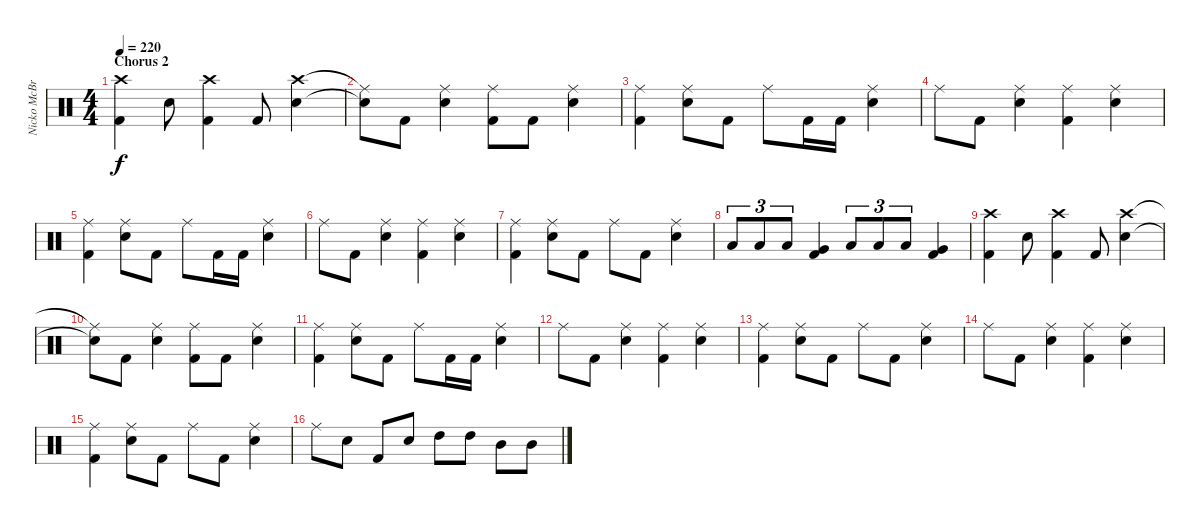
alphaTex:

\track ("Nicko McBrain" "Nicko McBr") {instrument percussion}
\staff {score}
\articulation defaults
\ts (4 4)
\section ("" "Chorus 2")
\tempo 220
\clef neutral
\ks c
("Crash high (hit)" "Kick (hit) 2").4{dy f} "Electric Snare (hit)".8 ("Crash high (hit)" "Kick (hit) 2").4 "Kick (hit) 2".8 ("Crash high (hit)" "Electric Snare (hit)").4 |
("Ride (middle)"{t} "Snare (hit)"{t}).8 "Kick (hit) 2".8 ("Ride (middle)" "Electric Snare (hit)").4 ("Ride (middle)" "Kick (hit) 2").8 "Kick (hit) 2".8 ("Ride (middle)" "Electric Snare (hit)").4 |
("Ride (middle)" "Kick (hit) 2").4 ("Ride (middle)" "Electric Snare (hit)").8 "Kick (hit) 2".8 "Ride (middle)".8 "Kick (hit) 2".16 "Kick (hit) 2".16 ("Ride (middle)" "Electric Snare (hit)").4 |
"Ride (middle)".8 "Kick (hit) 2".8 ("Ride (middle)" "Electric Snare (hit)").4 ("Ride (middle)" "Kick (hit) 2").4 ("Ride (middle)" "Electric Snare (hit)").4 |
("Ride (middle)" "Kick (hit) 2").4 ("Ride (middle)" "Electric Snare (hit)").8 "Kick (hit) 2".8 "Ride (middle)".8 "Kick (hit) 2".16 "Kick (hit) 2".16 ("Ride (middle)" "Electric Snare (hit)").4 |
"Ride (middle)".8 "Kick (hit) 2".8 ("Ride (middle)" "Electric Snare (hit)").4 ("Ride (middle)" "Kick (hit) 2").4 ("Ride (middle)" "Electric Snare (hit)").4 |
("Ride (middle)" "Kick (hit) 2").4 ("Ride (middle)" "Electric Snare (hit)").8 "Kick (hit) 2".8 "Ride (middle)".8 "Kick (hit) 2".8 ("Ride (middle)" "Electric Snare (hit)").4 |
"Low Tom (hit)".8{tu (3 2)} "Low Tom (hit)".8{tu (3 2)} "Low Tom (hit)".8{tu (3 2)} ("Very Low Tom (hit)" "Kick (hit) 2").4 "Low Tom (hit)".8{tu (3 2)} "Low Tom (hit)".8{tu (3 2)} "Low Tom (hit)".8{tu (3 2)} ("Very Low Tom (hit)" "Kick (hit) 2").4 |
("Crash high (hit)" "Kick (hit) 2").4 "Electric Snare (hit)".8 ("Crash high (hit)" "Kick (hit) 2").4 "Kick (hit) 2".8 ("Crash high (hit)" "Electric Snare (hit)").4 |
("Ride (middle)"{t} "Snare (hit)"{t}).8 "Kick (hit) 2".8 ("Ride (middle)" "Electric Snare (hit)").4 ("Ride (middle)" "Kick (hit) 2").8 "Kick (hit) 2".8 ("Ride (middle)" "Electric Snare (hit)").4 |
("Ride (middle)" "Kick (hit) 2").4 ("Ride (middle)" "Electric Snare (hit)").8 "Kick (hit) 2".8 "Ride (middle)".8 "Kick (hit) 2".16 "Kick (hit) 2".16 ("Ride (middle)" "Electric Snare (hit)").4 |
"Ride (middle)".8 "Kick (hit) 2".8 ("Ride (middle)" "Electric Snare (hit)").4 ("Ride (middle)" "Kick (hit) 2").4 ("Ride (middle)" "Electric Snare (hit)").4 |
("Ride (middle)" "Kick (hit) 2").4 ("Ride (middle)" "Electric Snare (hit)").8 "Kick (hit) 2".8 "Ride (middle)".8 "Kick (hit) 2".8 ("Ride (middle)" "Electric Snare (hit)").4 |
"Ride (middle)".8 "Kick (hit) 2".8 ("Ride (middle)" "Electric Snare (hit)").4 ("Ride (middle)" "Kick (hit) 2").4 ("Ride (middle)" "Electric Snare (hit)").4 |
("Ride (middle)" "Kick (hit) 2").4 ("Ride (middle)" "Electric Snare (hit)").8 "Kick (hit) 2".8 "Ride (middle)".8 "Kick (hit) 2".8 ("Ride (middle)" "Electric Snare (hit)").4 |
"Ride (middle)".8 "Electric Snare (hit)".8 "Kick (hit) 2".8 "Electric Snare (hit)".8 "High Tom (hit)".8 "High Tom (hit)".8 "Mid Tom (hit)".8 "Mid Tom (hit)".8
